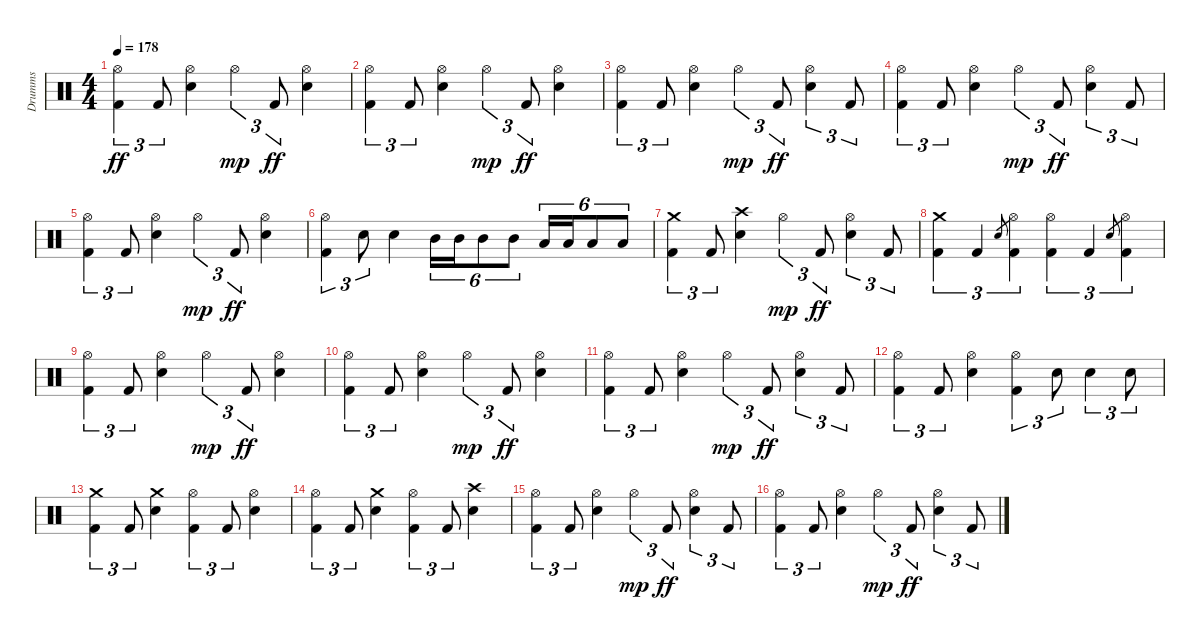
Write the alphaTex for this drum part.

\track ("Drumms" "Drumms") {instrument percussion}
\staff {score}
\articulation defaults
\ts (4 4)
\tempo 178
\clef neutral
\ks c
("Hi-Hat (open)" "Kick (hit) 2").4{tu (3 2) dy ff} "Kick (hit) 2".8{tu (3 2)} ("Hi-Hat (open)" "Electric Snare (hit)").4 "Hi-Hat (open)".4{tu (3 2) dy mp} "Kick (hit) 2".8{tu (3 2) dy ff} ("Hi-Hat (open)" "Electric Snare (hit)").4 |
("Hi-Hat (open)" "Kick (hit) 2").4{tu (3 2)} "Kick (hit) 2".8{tu (3 2)} ("Hi-Hat (open)" "Electric Snare (hit)").4 "Hi-Hat (open)".4{tu (3 2) dy mp} "Kick (hit) 2".8{tu (3 2) dy ff} ("Hi-Hat (open)" "Electric Snare (hit)").4 |
("Hi-Hat (open)" "Kick (hit) 2").4{tu (3 2)} "Kick (hit) 2".8{tu (3 2)} ("Hi-Hat (open)" "Electric Snare (hit)").4 "Hi-Hat (open)".4{tu (3 2) dy mp} "Kick (hit) 2".8{tu (3 2) dy ff} ("Hi-Hat (open)" "Electric Snare (hit)").4{tu (3 2)} "Kick (hit) 2".8{tu (3 2)} |
("Hi-Hat (open)" "Kick (hit) 2").4{tu (3 2)} "Kick (hit) 2".8{tu (3 2)} ("Hi-Hat (open)" "Electric Snare (hit)").4 "Hi-Hat (open)".4{tu (3 2) dy mp} "Kick (hit) 2".8{tu (3 2) dy ff} ("Hi-Hat (open)" "Electric Snare (hit)").4{tu (3 2)} "Kick (hit) 2".8{tu (3 2)} |
("Hi-Hat (open)" "Kick (hit) 2").4{tu (3 2)} "Kick (hit) 2".8{tu (3 2)} ("Hi-Hat (open)" "Electric Snare (hit)").4 "Hi-Hat (open)".4{tu (3 2) dy mp} "Kick (hit) 2".8{tu (3 2) dy ff} ("Hi-Hat (open)" "Electric Snare (hit)").4 |
("Hi-Hat (open)" "Kick (hit) 2").4{tu (3 2)} "Electric Snare (hit)".8{tu (3 2)} "Electric Snare (hit)".4 "Mid Tom (hit)".16{tu (6 4)} "Mid Tom (hit)".16{tu (6 4)} "Mid Tom (hit)".8{tu (6 4)} "Mid Tom (hit)".8{tu (6 4)} "Low Tom (hit)".16{tu (6 4)} "Low Tom (hit)".16{tu (6 4)} "Low Tom (hit)".8{tu (6 4)} "Low Tom (hit)".8{tu (6 4)} |
("Crash medium (hit)" "Kick (hit) 2").4{tu (3 2)} "Kick (hit) 2".8{tu (3 2)} ("Crash high (hit)" "Electric Snare (hit)").4 "Hi-Hat (open)".4{tu (3 2) dy mp} "Kick (hit) 2".8{tu (3 2) dy ff} ("Hi-Hat (open)" "Electric Snare (hit)").4{tu (3 2)} "Kick (hit) 2".8{tu (3 2)} |
("Crash medium (hit)" "Kick (hit) 2").4{tu (3 2)} "Kick (hit) 2".4{tu (3 2)} "Electric Snare (hit)".8{gr} ("Hi-Hat (open)" "Kick (hit) 2").4{tu (3 2)} ("Hi-Hat (open)" "Kick (hit) 2").4{tu (3 2)} "Kick (hit) 2".4{tu (3 2)} "Electric Snare (hit)".8{gr} ("Hi-Hat (open)" "Kick (hit) 2").4{tu (3 2)} |
("Hi-Hat (open)" "Kick (hit) 2").4{tu (3 2)} "Kick (hit) 2".8{tu (3 2)} ("Hi-Hat (open)" "Electric Snare (hit)").4 "Hi-Hat (open)".4{tu (3 2) dy mp} "Kick (hit) 2".8{tu (3 2) dy ff} ("Hi-Hat (open)" "Electric Snare (hit)").4 |
("Hi-Hat (open)" "Kick (hit) 2").4{tu (3 2)} "Kick (hit) 2".8{tu (3 2)} ("Hi-Hat (open)" "Electric Snare (hit)").4 "Hi-Hat (open)".4{tu (3 2) dy mp} "Kick (hit) 2".8{tu (3 2) dy ff} ("Hi-Hat (open)" "Electric Snare (hit)").4 |
("Hi-Hat (open)" "Kick (hit) 2").4{tu (3 2)} "Kick (hit) 2".8{tu (3 2)} ("Hi-Hat (open)" "Electric Snare (hit)").4 "Hi-Hat (open)".4{tu (3 2) dy mp} "Kick (hit) 2".8{tu (3 2) dy ff} ("Hi-Hat (open)" "Electric Snare (hit)").4{tu (3 2)} "Kick (hit) 2".8{tu (3 2)} |
("Hi-Hat (open)" "Kick (hit) 2").4{tu (3 2)} "Kick (hit) 2".8{tu (3 2)} ("Hi-Hat (open)" "Electric Snare (hit)").4 ("Hi-Hat (open)" "Kick (hit) 2").4{tu (3 2)} "Electric Snare (hit)".8{tu (3 2)} "Electric Snare (hit)".4{tu (3 2)} "Electric Snare (hit)".8{tu (3 2)} |
("Crash medium (hit)" "Kick (hit) 2").4{tu (3 2)} "Kick (hit) 2".8{tu (3 2)} ("Crash medium (hit)" "Electric Snare (hit)").4 ("Hi-Hat (open)" "Kick (hit) 2").4{tu (3 2)} "Kick (hit) 2".8{tu (3 2)} ("Hi-Hat (open)" "Electric Snare (hit)").4 |
("Hi-Hat (open)" "Kick (hit) 2").4{tu (3 2)} "Kick (hit) 2".8{tu (3 2)} ("Crash medium (hit)" "Electric Snare (hit)").4 ("Hi-Hat (open)" "Kick (hit) 2").4{tu (3 2)} "Kick (hit) 2".8{tu (3 2)} ("Crash high (hit)" "Electric Snare (hit)").4 |
("Hi-Hat (open)" "Kick (hit) 2").4{tu (3 2)} "Kick (hit) 2".8{tu (3 2)} ("Hi-Hat (open)" "Electric Snare (hit)").4 "Hi-Hat (open)".4{tu (3 2) dy mp} "Kick (hit) 2".8{tu (3 2) dy ff} ("Hi-Hat (open)" "Electric Snare (hit)").4{tu (3 2)} "Kick (hit) 2".8{tu (3 2)} |
("Hi-Hat (open)" "Kick (hit) 2").4{tu (3 2)} "Kick (hit) 2".8{tu (3 2)} ("Hi-Hat (open)" "Electric Snare (hit)").4 "Hi-Hat (open)".4{tu (3 2) dy mp} "Kick (hit) 2".8{tu (3 2) dy ff} ("Hi-Hat (open)" "Electric Snare (hit)").4{tu (3 2)} "Kick (hit) 2".8{tu (3 2)}
